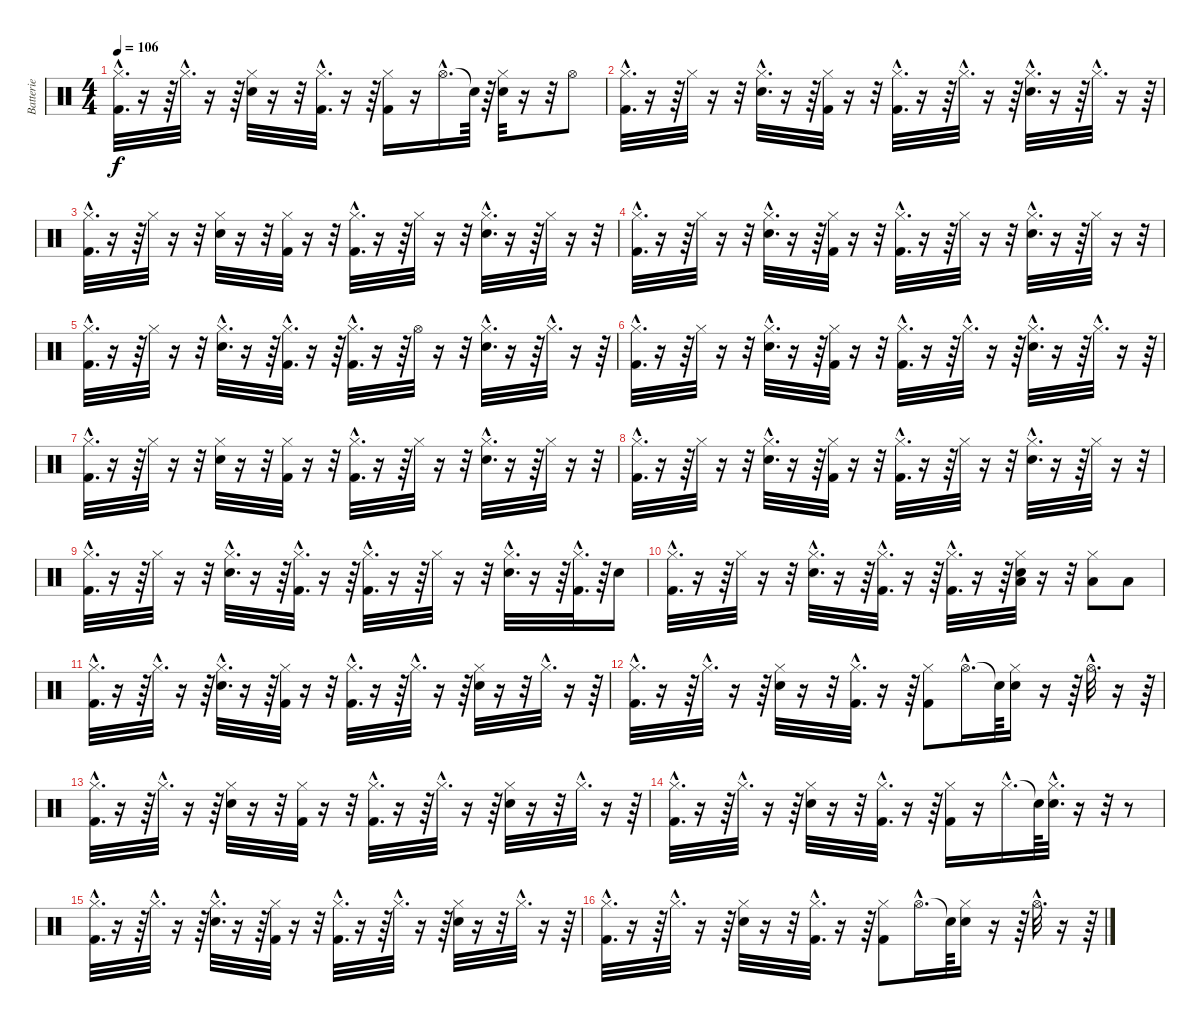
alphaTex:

\track ("Batterie" "Batterie") {instrument percussion}
\staff {score}
\articulation defaults
\ts (4 4)
\tempo 106
\clef neutral
\ks c
("Hi-Hat (closed)"{hac} "Kick (hit) 2"{hac}).32{d dy f} r.16 r.64 "Hi-Hat (closed)"{hac}.32{d} r.16 r.64 ("Hi-Hat (closed)" "Snare (hit) 2").32 r.16 r.32 ("Hi-Hat (closed)"{hac} "Kick (hit) 2"{hac}).32{d} r.16 r.64 ("Hi-Hat (closed)" "Kick (hit) 2").16 r.16 "Hi-Hat (open)"{hac}.16{d} "Snare (hit)"{t}.64 r.64 ("Hi-Hat (closed)" "Snare (hit) 2").32 r.16 r.32 "Hi-Hat (open)".8 |
("Hi-Hat (closed)"{hac} "Kick (hit) 2"{hac}).32{d} r.16 r.64 "Hi-Hat (closed)".32 r.16 r.32 ("Hi-Hat (closed)"{hac} "Snare (hit) 2"{hac}).32{d} r.16 r.64 ("Hi-Hat (closed)" "Kick (hit) 2").32 r.16 r.32 ("Hi-Hat (closed)"{hac} "Kick (hit) 2"{hac}).32{d} r.16 r.64 "Hi-Hat (closed)"{hac}.32{d} r.16 r.64 ("Hi-Hat (closed)"{hac} "Snare (hit) 2"{hac}).32{d} r.16 r.64 "Hi-Hat (closed)"{hac}.32{d} r.16 r.64 |
("Hi-Hat (closed)"{hac} "Kick (hit) 2"{hac}).32{d} r.16 r.64 "Hi-Hat (closed)".32 r.16 r.32 ("Hi-Hat (closed)" "Snare (hit) 2").32 r.16 r.32 ("Hi-Hat (closed)" "Kick (hit) 2").32 r.16 r.32 ("Hi-Hat (closed)"{hac} "Kick (hit) 2"{hac}).32{d} r.16 r.64 "Hi-Hat (closed)".32 r.16 r.32 ("Hi-Hat (closed)"{hac} "Snare (hit) 2"{hac}).32{d} r.16 r.64 "Hi-Hat (closed)".32 r.16 r.32 |
("Hi-Hat (closed)"{hac} "Kick (hit) 2"{hac}).32{d} r.16 r.64 "Hi-Hat (closed)".32 r.16 r.32 ("Hi-Hat (closed)"{hac} "Snare (hit) 2"{hac}).32{d} r.16 r.64 ("Hi-Hat (closed)" "Kick (hit) 2").32 r.16 r.32 ("Hi-Hat (closed)"{hac} "Kick (hit) 2"{hac}).32{d} r.16 r.64 "Hi-Hat (closed)".32 r.16 r.32 ("Hi-Hat (closed)"{hac} "Snare (hit) 2"{hac}).32{d} r.16 r.64 "Hi-Hat (closed)".32 r.16 r.32 |
("Hi-Hat (closed)"{hac} "Kick (hit) 2"{hac}).32{d} r.16 r.64 "Hi-Hat (closed)".32 r.16 r.32 ("Hi-Hat (closed)"{hac} "Snare (hit) 2"{hac}).32{d} r.16 r.64 ("Hi-Hat (closed)"{hac} "Kick (hit) 2"{hac}).32{d} r.16 r.64 ("Hi-Hat (closed)"{hac} "Kick (hit) 2"{hac}).32{d} r.16 r.64 "Hi-Hat (open)".32 r.16 r.32 ("Hi-Hat (closed)"{hac} "Snare (hit) 2"{hac}).32{d} r.16 r.64 "Hi-Hat (closed)"{hac}.32{d} r.16 r.64 |
("Hi-Hat (closed)"{hac} "Kick (hit) 2"{hac}).32{d} r.16 r.64 "Hi-Hat (closed)".32 r.16 r.32 ("Hi-Hat (closed)"{hac} "Snare (hit) 2"{hac}).32{d} r.16 r.64 ("Hi-Hat (closed)" "Kick (hit) 2").32 r.16 r.32 ("Hi-Hat (closed)"{hac} "Kick (hit) 2"{hac}).32{d} r.16 r.64 "Hi-Hat (closed)"{hac}.32{d} r.16 r.64 ("Hi-Hat (closed)"{hac} "Snare (hit) 2"{hac}).32{d} r.16 r.64 "Hi-Hat (closed)"{hac}.32{d} r.16 r.64 |
("Hi-Hat (closed)"{hac} "Kick (hit) 2"{hac}).32{d} r.16 r.64 "Hi-Hat (closed)".32 r.16 r.32 ("Hi-Hat (closed)" "Snare (hit) 2").32 r.16 r.32 ("Hi-Hat (closed)" "Kick (hit) 2").32 r.16 r.32 ("Hi-Hat (closed)"{hac} "Kick (hit) 2"{hac}).32{d} r.16 r.64 "Hi-Hat (closed)".32 r.16 r.32 ("Hi-Hat (closed)"{hac} "Snare (hit) 2"{hac}).32{d} r.16 r.64 "Hi-Hat (closed)".32 r.16 r.32 |
("Hi-Hat (closed)"{hac} "Kick (hit) 2"{hac}).32{d} r.16 r.64 "Hi-Hat (closed)".32 r.16 r.32 ("Hi-Hat (closed)"{hac} "Snare (hit) 2"{hac}).32{d} r.16 r.64 ("Hi-Hat (closed)" "Kick (hit) 2").32 r.16 r.32 ("Hi-Hat (closed)"{hac} "Kick (hit) 2"{hac}).32{d} r.16 r.64 "Hi-Hat (closed)".32 r.16 r.32 ("Hi-Hat (closed)"{hac} "Snare (hit) 2"{hac}).32{d} r.16 r.64 "Hi-Hat (closed)".32 r.16 r.32 |
("Hi-Hat (closed)"{hac} "Kick (hit) 2"{hac}).32{d} r.16 r.64 "Hi-Hat (closed)".32 r.16 r.32 ("Hi-Hat (closed)"{hac} "Snare (hit) 2"{hac}).32{d} r.16 r.64 ("Hi-Hat (closed)"{hac} "Kick (hit) 2"{hac}).32{d} r.16 r.64 ("Hi-Hat (closed)"{hac} "Kick (hit) 2"{hac}).32{d} r.16 r.64 "Hi-Hat (closed)".32 r.16 r.32 ("Hi-Hat (closed)"{hac} "Snare (hit) 2"{hac}).32{d} r.16 r.64 ("Hi-Hat (closed)"{hac} "Kick (hit) 2"{hac}).32{d} r.64 "Snare (hit) 2".16 |
("Hi-Hat (closed)"{hac} "Kick (hit) 2"{hac}).32{d} r.16 r.64 "Hi-Hat (closed)".32 r.16 r.32 ("Hi-Hat (closed)"{hac} "Snare (hit) 2"{hac}).32{d} r.16 r.64 ("Hi-Hat (closed)"{hac} "Kick (hit) 2"{hac}).32{d} r.16 r.64 ("Hi-Hat (closed)"{hac} "Kick (hit) 2"{hac}).32{d} r.16 r.64 ("Hi-Hat (closed)" "Snare (hit) 2" "Low Tom (hit)").32 r.16 r.32 ("Hi-Hat (closed)" "Low Tom (hit)").8 "Low Tom (hit)".8 |
("Hi-Hat (closed)"{hac} "Kick (hit) 2"{hac}).32{d} r.16 r.64 "Hi-Hat (closed)"{hac}.32{d} r.16 r.64 ("Hi-Hat (closed)"{hac} "Snare (hit) 2"{hac}).32{d} r.16 r.64 ("Hi-Hat (closed)" "Kick (hit) 2").32 r.16 r.32 ("Hi-Hat (closed)"{hac} "Kick (hit) 2"{hac}).32{d} r.16 r.64 "Hi-Hat (closed)"{hac}.32{d} r.16 r.64 ("Hi-Hat (closed)" "Snare (hit) 2").32 r.16 r.32 "Hi-Hat (closed)"{hac}.32{d} r.16 r.64 |
("Hi-Hat (closed)"{hac} "Kick (hit) 2"{hac}).32{d} r.16 r.64 "Hi-Hat (closed)"{hac}.32{d} r.16 r.64 ("Hi-Hat (closed)" "Snare (hit) 2").32 r.16 r.32 ("Hi-Hat (closed)"{hac} "Kick (hit) 2"{hac}).32{d} r.16 r.64 ("Hi-Hat (closed)" "Kick (hit) 2").8 "Hi-Hat (open)"{hac}.16{d} "Snare (hit)"{t}.64 ("Hi-Hat (closed)" "Snare (hit) 2").16 r.16 r.64 "Hi-Hat (open)"{hac}.32{d} r.16 r.64 |
("Hi-Hat (closed)"{hac} "Kick (hit) 2"{hac}).32{d} r.16 r.64 "Hi-Hat (closed)"{hac}.32{d} r.16 r.64 ("Hi-Hat (closed)" "Snare (hit) 2").32 r.16 r.32 ("Hi-Hat (closed)" "Kick (hit) 2").32 r.16 r.32 ("Hi-Hat (closed)"{hac} "Kick (hit) 2"{hac}).32{d} r.16 r.64 "Hi-Hat (closed)"{hac}.32{d} r.16 r.64 ("Hi-Hat (closed)" "Snare (hit) 2").32 r.16 r.32 "Hi-Hat (closed)"{hac}.32{d} r.16 r.64 |
("Hi-Hat (closed)"{hac} "Kick (hit) 2"{hac}).32{d} r.16 r.64 "Hi-Hat (closed)"{hac}.32{d} r.16 r.64 ("Hi-Hat (closed)" "Snare (hit) 2").32 r.16 r.32 ("Hi-Hat (closed)"{hac} "Kick (hit) 2"{hac}).32{d} r.16 r.64 ("Hi-Hat (closed)" "Kick (hit) 2").16 r.16 "Hi-Hat (closed)"{hac}.16{d} "Snare (hit)"{t}.64 ("Hi-Hat (closed)"{hac} "Snare (hit) 2"{hac}).32{d} r.16 r.32 r.8 |
("Hi-Hat (closed)"{hac} "Kick (hit) 2"{hac}).32{d} r.16 r.64 "Hi-Hat (closed)"{hac}.32{d} r.16 r.64 ("Hi-Hat (closed)"{hac} "Snare (hit) 2"{hac}).32{d} r.16 r.64 ("Hi-Hat (closed)" "Kick (hit) 2").32 r.16 r.32 ("Hi-Hat (closed)"{hac} "Kick (hit) 2"{hac}).32{d} r.16 r.64 "Hi-Hat (closed)"{hac}.32{d} r.16 r.64 ("Hi-Hat (closed)" "Snare (hit) 2").32 r.16 r.32 "Hi-Hat (closed)"{hac}.32{d} r.16 r.64 |
("Hi-Hat (closed)"{hac} "Kick (hit) 2"{hac}).32{d} r.16 r.64 "Hi-Hat (closed)"{hac}.32{d} r.16 r.64 ("Hi-Hat (closed)" "Snare (hit) 2").32 r.16 r.32 ("Hi-Hat (closed)"{hac} "Kick (hit) 2"{hac}).32{d} r.16 r.64 ("Hi-Hat (closed)" "Kick (hit) 2").8 "Hi-Hat (open)"{hac}.16{d} "Snare (hit)"{t}.64 ("Hi-Hat (closed)" "Snare (hit) 2").16 r.16 r.64 "Hi-Hat (open)"{hac}.32{d} r.16 r.64
